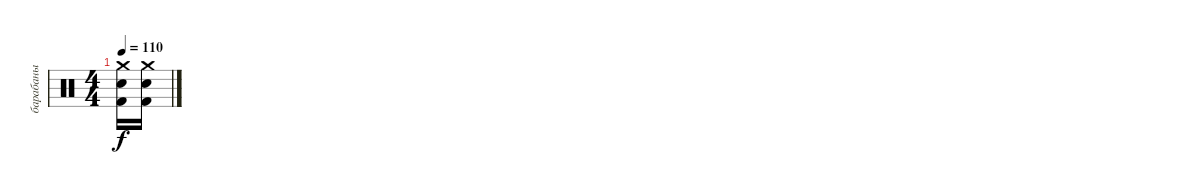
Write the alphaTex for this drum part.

\track ("барабаны" "барабаны") {instrument percussion}
\staff {score}
\articulation defaults
\ts (4 4)
\tempo 110
\clef neutral
\ks c
("Crash medium (hit)" "Snare (hit) 2" "Kick (hit) 2").16{dy f} ("Crash medium (hit)" "Snare (hit) 2" "Kick (hit) 2").16
